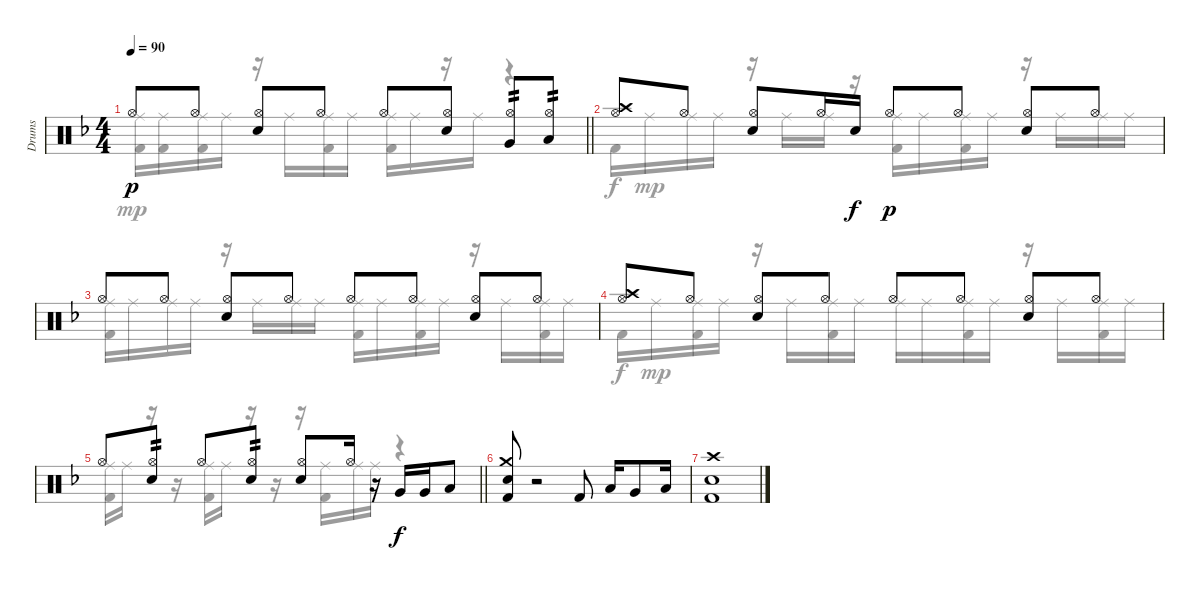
\track ("Drums" "Drums") {instrument percussion}
\staff {score}
\articulation defaults
\voice
\ts (4 4)
\tempo 90
\clef neutral
\barLineRight lightlight
\ks dminor "Hi-Hat (open)".8{dy p} "Hi-Hat (open)".8
("Electric Snare (hit)" "Hi-Hat (open)").8 "Hi-Hat (open)".8 "Hi-Hat (open)".8 ("Electric Snare (hit)" "Hi-Hat (open)").8 ("Very Low Tom (hit)" "Hi-Hat (open)").8{tp 2} ("Low Floor Tom (hit)" "Hi-Hat (open)").8{tp 2} |
("Crash high (hit)" "Hi-Hat (open)").8 "Hi-Hat (open)".8 ("Electric Snare (hit)" "Hi-Hat (open)").8 "Hi-Hat (open)".16 "Electric Snare (hit)".16{dy f} "Hi-Hat (open)".8{dy p} "Hi-Hat (open)".8 ("Electric Snare (hit)" "Hi-Hat (open)").8 "Hi-Hat (open)".8 |
"Hi-Hat (open)".8 "Hi-Hat (open)".8 ("Electric Snare (hit)" "Hi-Hat (open)").8 "Hi-Hat (open)".8 "Hi-Hat (open)".8 "Hi-Hat (open)".8 ("Electric Snare (hit)" "Hi-Hat (open)").8 "Hi-Hat (open)".8 |
("Crash high (hit)" "Hi-Hat (open)").8 "Hi-Hat (open)".8 ("Electric Snare (hit)" "Hi-Hat (open)").8 "Hi-Hat (open)".8 "Hi-Hat (open)".8 "Hi-Hat (open)".8 ("Electric Snare (hit)" "Hi-Hat (open)").8 "Hi-Hat (open)".8 |
\barLineRight lightlight "Hi-Hat (open)".8
("Electric Snare (hit)" "Hi-Hat (open)").8{tp 2} "Hi-Hat (open)".8 ("Electric Snare (hit)" "Hi-Hat (open)").8{tp 2} ("Electric Snare (hit)" "Hi-Hat (open)").8 "Hi-Hat (open)".16 r.16 "Very Low Tom (hit)".16{dy f} "Very Low Tom (hit)".16 "Low Floor Tom (hit)".8 |
("Crash medium (hit)" "Electric Snare (hit)" "Kick (hit) 2").8 r.2 "Kick (hit) 2".8 "Low Tom (hit)".16 "Very Low Tom (hit)".8 "Low Floor Tom (hit)".16 |
("Crash high (hit)" "Electric Snare (hit)" "Kick (hit) 2").1 |
\voice
\clef neutral
\ottava regular
\simile none
\barLineRight lightlight
\ks dminor
("Ride (middle)" "Kick (hit) 2").16{dy mp} ("Ride (middle)" "Kick (hit) 2").16 ("Ride (middle)" "Kick (hit) 2").16 "Ride (middle)".16 r.16 "Ride (middle)".16 ("Ride (middle)" "Kick (hit) 2").16 "Ride (middle)".16 ("Ride (middle)" "Kick (hit) 2").16 "Ride (middle)".16 r.16 "Ride (middle)".16 r.4 |
"Kick (hit) 2".16{dy f} "Ride (middle)".16{dy mp} "Ride (middle)".16 "Ride (middle)".16 r.16 "Ride (middle)".16 "Ride (middle)".16 r.16 ("Ride (middle)" "Kick (hit) 2").16 "Ride (middle)".16 ("Ride (middle)" "Kick (hit) 2").16 "Ride (middle)".16 r.16 "Ride (middle)".16 "Ride (middle)".16 "Ride (middle)".16 |
("Ride (middle)" "Kick (hit) 2").16 "Ride (middle)".16 "Ride (middle)".16 "Ride (middle)".16 r.16 "Ride (middle)".16 "Ride (middle)".16 "Ride (middle)".16 ("Ride (middle)" "Kick (hit) 2").16 "Ride (middle)".16 ("Ride (middle)" "Kick (hit) 2").16 "Ride (middle)".16 r.16 "Ride (middle)".16 ("Ride (middle)" "Kick (hit) 2").16 "Ride (middle)".16 |
"Kick (hit) 2".16{dy f} "Ride (middle)".16{dy mp} ("Ride (middle)" "Kick (hit) 2").16 "Ride (middle)".16 r.16 "Ride (middle)".16 ("Ride (middle)" "Kick (hit) 2").16 "Ride (middle)".16 "Ride (middle)".16 "Ride (middle)".16 ("Ride (middle)" "Kick (hit) 2").16 "Ride (middle)".16 r.16 "Ride (middle)".16 ("Ride (middle)" "Kick (hit) 2").16 "Ride (middle)".16 |
\barLineRight lightlight
("Ride (middle)" "Kick (hit) 2").16 "Ride (middle)".16 r.16 r.16 ("Ride (middle)" "Kick (hit) 2").16 "Ride (middle)".16 r.16 r.16 r.16 ("Ride (middle)" "Kick (hit) 2").16 "Ride (middle)".16 "Ride (middle)".16 r.4 |
|
|
